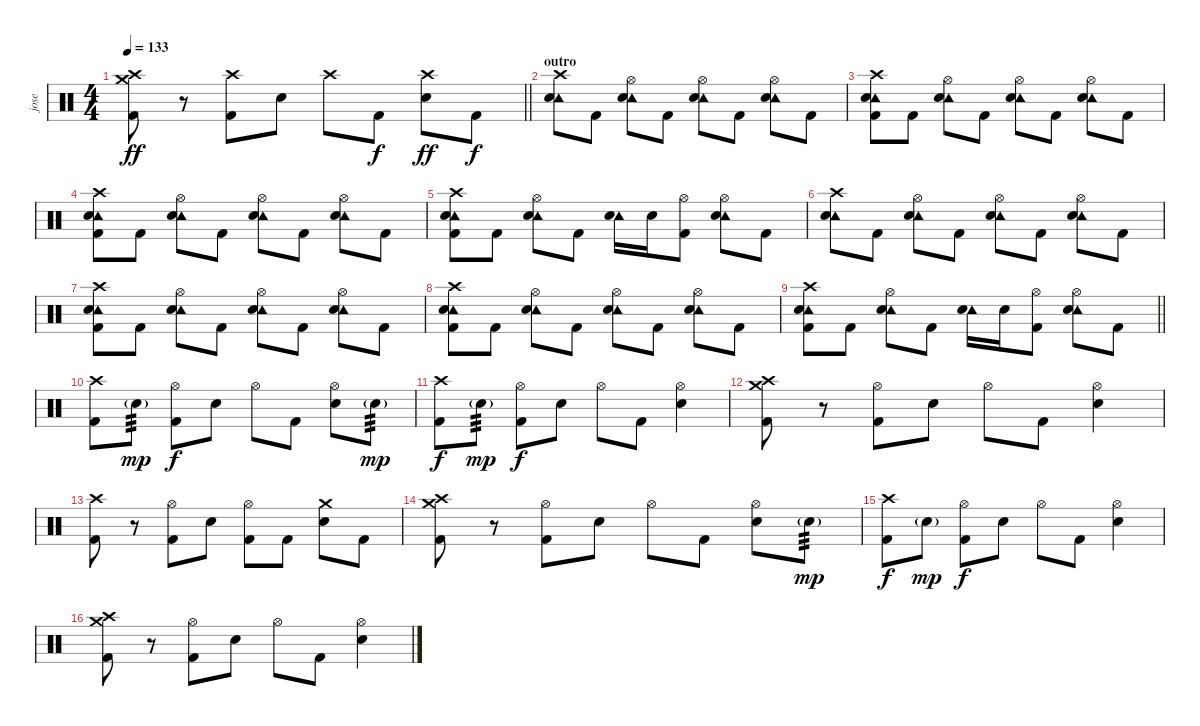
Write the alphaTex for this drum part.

\track ("jose" "jose") {instrument percussion}
\staff {score}
\articulation defaults
\ts (4 4)
\tempo 133
\clef neutral
\barLineRight lightlight
\ks c
("Crash high (hit)" "Crash medium (hit)" "Kick (hit) 2").8{dy ff} r.8 ("Crash high (hit)" "Kick (hit) 2").8 "Snare (hit) 2".8 "Crash high (hit)".8 "Kick (hit) 2".8{dy f} ("Crash high (hit)" "Snare (hit) 2").8{dy ff} "Kick (hit) 2".8{dy f} |
\section ("" "outro")
("Tambourine (hit)" "Crash high (hit)" "Snare (hit) 2").8 "Kick (hit) 2".8 ("Tambourine (hit)" "Hi-Hat (open)" "Snare (hit) 2").8 "Kick (hit) 2".8 ("Tambourine (hit)" "Hi-Hat (open)" "Snare (hit) 2").8 "Kick (hit) 2".8 ("Tambourine (hit)" "Hi-Hat (open)" "Snare (hit) 2").8 "Kick (hit) 2".8 |
("Tambourine (hit)" "Crash high (hit)" "Snare (hit) 2" "Kick (hit) 2").8 "Kick (hit) 2".8 ("Tambourine (hit)" "Hi-Hat (open)" "Snare (hit) 2").8 "Kick (hit) 2".8 ("Tambourine (hit)" "Hi-Hat (open)" "Snare (hit) 2").8 "Kick (hit) 2".8 ("Tambourine (hit)" "Hi-Hat (open)" "Snare (hit) 2").8 "Kick (hit) 2".8 |
("Tambourine (hit)" "Crash high (hit)" "Snare (hit) 2" "Kick (hit) 2").8 "Kick (hit) 2".8 ("Tambourine (hit)" "Hi-Hat (open)" "Snare (hit) 2").8 "Kick (hit) 2".8 ("Tambourine (hit)" "Hi-Hat (open)" "Snare (hit) 2").8 "Kick (hit) 2".8 ("Tambourine (hit)" "Hi-Hat (open)" "Snare (hit) 2").8 "Kick (hit) 2".8 |
("Tambourine (hit)" "Crash high (hit)" "Snare (hit) 2" "Kick (hit) 2").8 "Kick (hit) 2".8 ("Tambourine (hit)" "Hi-Hat (open)" "Snare (hit) 2").8 "Kick (hit) 2".8 ("Tambourine (hit)" "Snare (hit) 2").16 "Snare (hit) 2".16 ("Hi-Hat (open)" "Kick (hit) 2").8 ("Tambourine (hit)" "Hi-Hat (open)" "Snare (hit) 2").8 "Kick (hit) 2".8 |
("Tambourine (hit)" "Crash high (hit)" "Snare (hit) 2").8 "Kick (hit) 2".8 ("Tambourine (hit)" "Hi-Hat (open)" "Snare (hit) 2").8 "Kick (hit) 2".8 ("Tambourine (hit)" "Hi-Hat (open)" "Snare (hit) 2").8 "Kick (hit) 2".8 ("Tambourine (hit)" "Hi-Hat (open)" "Snare (hit) 2").8 "Kick (hit) 2".8 |
("Tambourine (hit)" "Crash high (hit)" "Snare (hit) 2" "Kick (hit) 2").8 "Kick (hit) 2".8 ("Tambourine (hit)" "Hi-Hat (open)" "Snare (hit) 2").8 "Kick (hit) 2".8 ("Tambourine (hit)" "Hi-Hat (open)" "Snare (hit) 2").8 "Kick (hit) 2".8 ("Tambourine (hit)" "Hi-Hat (open)" "Snare (hit) 2").8 "Kick (hit) 2".8 |
("Tambourine (hit)" "Crash high (hit)" "Snare (hit) 2" "Kick (hit) 2").8 "Kick (hit) 2".8 ("Tambourine (hit)" "Hi-Hat (open)" "Snare (hit) 2").8 "Kick (hit) 2".8 ("Tambourine (hit)" "Hi-Hat (open)" "Snare (hit) 2").8 "Kick (hit) 2".8 ("Tambourine (hit)" "Hi-Hat (open)" "Snare (hit) 2").8 "Kick (hit) 2".8 |
\barLineRight lightlight
("Tambourine (hit)" "Crash high (hit)" "Snare (hit) 2" "Kick (hit) 2").8 "Kick (hit) 2".8 ("Tambourine (hit)" "Hi-Hat (open)" "Snare (hit) 2").8 "Kick (hit) 2".8 ("Tambourine (hit)" "Snare (hit) 2").16 "Snare (hit) 2".16 ("Hi-Hat (open)" "Kick (hit) 2").8 ("Tambourine (hit)" "Hi-Hat (open)" "Snare (hit) 2").8 "Kick (hit) 2".8 |
("Crash high (hit)" "Kick (hit) 2").8 "Snare (hit) 2"{g}.8{tp 3 dy mp} ("Hi-Hat (open)" "Kick (hit) 2").8{dy f} "Snare (hit) 2".8 "Hi-Hat (open)".8 "Kick (hit) 2".8 ("Hi-Hat (open)" "Snare (hit) 2").8 "Snare (hit) 2"{g}.8{tp 3 dy mp} |
("Crash high (hit)" "Kick (hit) 2").8{dy f} "Snare (hit) 2"{g}.8{tp 3 dy mp} ("Hi-Hat (open)" "Kick (hit) 2").8{dy f} "Snare (hit) 2".8 "Hi-Hat (open)".8 "Kick (hit) 2".8 ("Hi-Hat (open)" "Snare (hit) 2").4 |
("Crash high (hit)" "Crash medium (hit)" "Kick (hit) 2").8 r.8 ("Hi-Hat (open)" "Kick (hit) 2").8 "Snare (hit) 2".8 "Hi-Hat (open)".8 "Kick (hit) 2".8 ("Hi-Hat (open)" "Snare (hit) 2").4 |
("Crash high (hit)" "Kick (hit) 2").8 r.8 ("Hi-Hat (open)" "Kick (hit) 2").8 "Snare (hit) 2".8 ("Hi-Hat (open)" "Kick (hit) 2").8 "Kick (hit) 2".8 ("Crash medium (hit)" "Snare (hit) 2").8 "Kick (hit) 2".8 |
("Crash high (hit)" "Crash medium (hit)" "Kick (hit) 2").8 r.8 ("Hi-Hat (open)" "Kick (hit) 2").8 "Snare (hit) 2".8 "Hi-Hat (open)".8 "Kick (hit) 2".8 ("Hi-Hat (open)" "Snare (hit) 2").8 "Snare (hit) 2"{g}.8{tp 3 dy mp} |
("Crash high (hit)" "Kick (hit) 2").8{dy f} "Snare (hit) 2"{g}.8{dy mp} ("Hi-Hat (open)" "Kick (hit) 2").8{dy f} "Snare (hit) 2".8 "Hi-Hat (open)".8 "Kick (hit) 2".8 ("Hi-Hat (open)" "Snare (hit) 2").4 |
("Crash high (hit)" "Crash medium (hit)" "Kick (hit) 2").8 r.8 ("Hi-Hat (open)" "Kick (hit) 2").8 "Snare (hit) 2".8 "Hi-Hat (open)".8 "Kick (hit) 2".8 ("Hi-Hat (open)" "Snare (hit) 2").4
